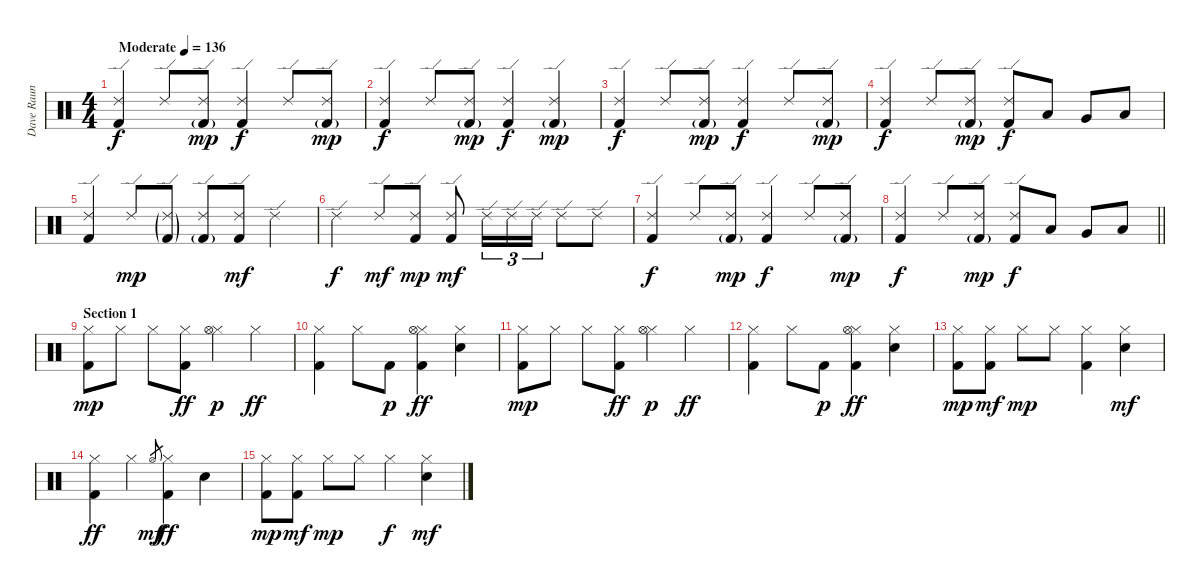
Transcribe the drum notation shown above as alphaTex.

\track ("Dave Raun" "Dave Raun") {instrument percussion}
\staff {score}
\articulation defaults
\ts (4 4)
\tempo (136 "Moderate")
\clef neutral
\ks c
("Ride (edge) 2" "Kick (hit) 2").4{dy f} "Ride (edge) 2".8 ("Ride (edge) 2" "Kick (hit) 2"{g}).8{dy mp} ("Ride (edge) 2" "Kick (hit) 2").4{dy f} "Ride (edge) 2".8 ("Ride (edge) 2" "Kick (hit) 2"{g}).8{dy mp} |
("Ride (edge) 2" "Kick (hit) 2").4{dy f} "Ride (edge) 2".8 ("Ride (edge) 2" "Kick (hit) 2"{g}).8{dy mp} ("Ride (edge) 2" "Kick (hit) 2").4{dy f} ("Ride (edge) 2" "Kick (hit) 2"{g}).4{dy mp} |
("Ride (edge) 2" "Kick (hit) 2").4{dy f} "Ride (edge) 2".8 ("Ride (edge) 2" "Kick (hit) 2"{g}).8{dy mp} ("Ride (edge) 2" "Kick (hit) 2").4{dy f} "Ride (edge) 2".8 ("Ride (edge) 2" "Kick (hit) 2"{g}).8{dy mp} |
("Ride (edge) 2" "Kick (hit) 2").4{dy f} "Ride (edge) 2".8 ("Ride (edge) 2" "Kick (hit) 2"{g}).8{dy mp} ("Ride (edge) 2" "Kick (hit) 2").8{dy f} "Low Tom (hit)".8 "Very Low Tom (hit)".8 "Low Floor Tom (hit)".8 |
("Ride (edge) 2" "Kick (hit) 2").4 "Ride (edge) 2".8{dy mp} ("Ride (edge) 2"{g} "Kick (hit) 2"{g}).8 ("Ride (edge) 2" "Kick (hit) 2"{g}).8 ("Ride (edge) 2" "Kick (hit) 2").8{dy mf} "Ride (edge) 2".4 |
"Ride (edge) 2".4{dy f} "Ride (edge) 2".8{dy mf} ("Ride (edge) 2" "Kick (hit) 2").8{dy mp} ("Ride (edge) 2" "Kick (hit) 2").8{dy mf} "Ride (edge) 2".16{tu (3 2)} "Ride (edge) 2".16{tu (3 2)} "Ride (edge) 2".16{tu (3 2)} "Ride (edge) 2".8 "Ride (edge) 2".8 |
("Ride (edge) 2" "Kick (hit) 2").4{dy f} "Ride (edge) 2".8 ("Ride (edge) 2" "Kick (hit) 2"{g}).8{dy mp} ("Ride (edge) 2" "Kick (hit) 2").4{dy f} "Ride (edge) 2".8 ("Ride (edge) 2" "Kick (hit) 2"{g}).8{dy mp} |
\barLineRight lightlight
("Ride (edge) 2" "Kick (hit) 2").4{dy f} "Ride (edge) 2".8 ("Ride (edge) 2" "Kick (hit) 2"{g}).8{dy mp} ("Ride (edge) 2" "Kick (hit) 2").8{dy f} "Low Tom (hit)".8 "Very Low Tom (hit)".8 "Low Floor Tom (hit)".8 |
\section ("" "Section 1")
("Hi-Hat (closed)" "Kick (hit) 2").8{dy mp} "Hi-Hat (closed)".8 "Hi-Hat (closed)".8 ("Hi-Hat (closed)" "Kick (hit) 2").8{dy ff} ("Hi-Hat (closed)" "Hi-Hat (open)").4{dy p} "Hi-Hat (closed)".4{dy ff} |
("Hi-Hat (closed)" "Kick (hit) 2").4 "Hi-Hat (closed)".8 "Kick (hit) 2".8{dy p} ("Hi-Hat (closed)" "Hi-Hat (open)" "Kick (hit) 2").4{dy ff} ("Hi-Hat (closed)" "Electric Snare (hit)").4 |
("Hi-Hat (closed)" "Kick (hit) 2").8{dy mp} "Hi-Hat (closed)".8 "Hi-Hat (closed)".8 ("Hi-Hat (closed)" "Kick (hit) 2").8{dy ff} ("Hi-Hat (closed)" "Hi-Hat (open)").4{dy p} "Hi-Hat (closed)".4{dy ff} |
("Hi-Hat (closed)" "Kick (hit) 2").4 "Hi-Hat (closed)".8 "Kick (hit) 2".8{dy p} ("Hi-Hat (closed)" "Hi-Hat (open)" "Kick (hit) 2").4{dy ff} ("Hi-Hat (closed)" "Electric Snare (hit)").4 |
("Hi-Hat (closed)" "Kick (hit) 2").8{dy mp} ("Hi-Hat (closed)" "Kick (hit) 2").8{dy mf} "Hi-Hat (closed)".8{dy mp} "Hi-Hat (closed)".8 ("Hi-Hat (closed)" "Kick (hit) 2").4 ("Hi-Hat (closed)" "Electric Snare (hit)").4{dy mf} |
("Hi-Hat (closed)" "Kick (hit) 2").4{dy ff} "Hi-Hat (closed)".4 "Hi-Hat (open)".8{gr dy mf} ("Hi-Hat (closed)" "Kick (hit) 2").4{dy ff} "Electric Snare (hit)".4 |
("Hi-Hat (closed)" "Kick (hit) 2").8{dy mp} ("Hi-Hat (closed)" "Kick (hit) 2").8{dy mf} "Hi-Hat (closed)".8{dy mp} "Hi-Hat (closed)".8 "Hi-Hat (closed)".4{dy f} ("Hi-Hat (closed)" "Electric Snare (hit)").4{dy mf}
